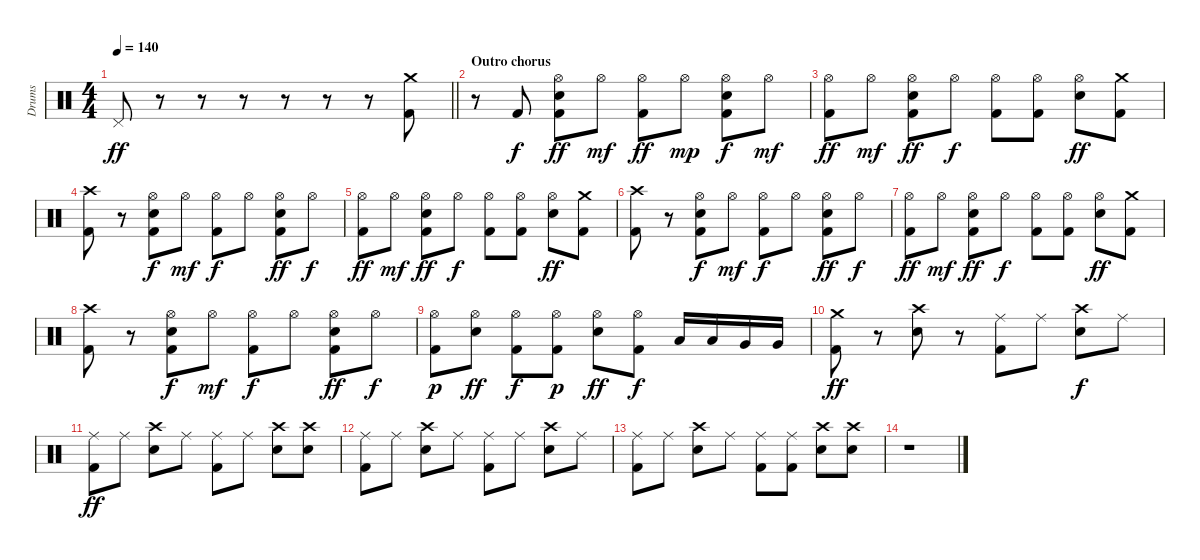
\track ("Drums" "Drums") {instrument percussion}
\staff {score}
\articulation defaults
\ts (4 4)
\tempo 140
\clef neutral
\barLineRight lightlight
\ks c "Pedal Hi-Hat (hit)".8{dy ff}
r.8 r.8 r.8 r.8 r.8 r.8 ("Crash medium (hit)" "Kick (hit) 2").8 |
\section ("" "Outro chorus")
r.8 "Kick (hit) 2".8{dy f} ("Hi-Hat (open)" "Electric Snare (hit)" "Kick (hit) 2").8{dy ff} "Hi-Hat (open)".8{dy mf} ("Hi-Hat (open)" "Kick (hit) 2").8{dy ff} "Hi-Hat (open)".8{dy mp} ("Hi-Hat (open)" "Electric Snare (hit)" "Kick (hit) 2").8{dy f} "Hi-Hat (open)".8{dy mf} |
("Hi-Hat (open)" "Kick (hit) 2").8{dy ff} "Hi-Hat (open)".8{dy mf} ("Hi-Hat (open)" "Electric Snare (hit)" "Kick (hit) 2").8{dy ff} "Hi-Hat (open)".8{dy f} ("Hi-Hat (open)" "Kick (hit) 2").8 ("Hi-Hat (open)" "Kick (hit) 2").8 ("Hi-Hat (open)" "Electric Snare (hit)").8{dy ff} ("Crash medium (hit)" "Kick (hit) 2").8 |
("Crash high (hit)" "Kick (hit) 2").8 r.8 ("Hi-Hat (open)" "Electric Snare (hit)" "Kick (hit) 2").8{dy f} "Hi-Hat (open)".8{dy mf} ("Hi-Hat (open)" "Kick (hit) 2").8{dy f} "Hi-Hat (open)".8 ("Hi-Hat (open)" "Electric Snare (hit)" "Kick (hit) 2").8{dy ff} "Hi-Hat (open)".8{dy f} |
("Hi-Hat (open)" "Kick (hit) 2").8{dy ff} "Hi-Hat (open)".8{dy mf} ("Hi-Hat (open)" "Electric Snare (hit)" "Kick (hit) 2").8{dy ff} "Hi-Hat (open)".8{dy f} ("Hi-Hat (open)" "Kick (hit) 2").8 ("Hi-Hat (open)" "Kick (hit) 2").8 ("Hi-Hat (open)" "Electric Snare (hit)").8{dy ff} ("Crash medium (hit)" "Kick (hit) 2").8 |
("Crash high (hit)" "Kick (hit) 2").8 r.8 ("Hi-Hat (open)" "Electric Snare (hit)" "Kick (hit) 2").8{dy f} "Hi-Hat (open)".8{dy mf} ("Hi-Hat (open)" "Kick (hit) 2").8{dy f} "Hi-Hat (open)".8 ("Hi-Hat (open)" "Electric Snare (hit)" "Kick (hit) 2").8{dy ff} "Hi-Hat (open)".8{dy f} |
("Hi-Hat (open)" "Kick (hit) 2").8{dy ff} "Hi-Hat (open)".8{dy mf} ("Hi-Hat (open)" "Electric Snare (hit)" "Kick (hit) 2").8{dy ff} "Hi-Hat (open)".8{dy f} ("Hi-Hat (open)" "Kick (hit) 2").8 ("Hi-Hat (open)" "Kick (hit) 2").8 ("Hi-Hat (open)" "Electric Snare (hit)").8{dy ff} ("Crash medium (hit)" "Kick (hit) 2").8 |
("Crash high (hit)" "Kick (hit) 2").8 r.8 ("Hi-Hat (open)" "Electric Snare (hit)" "Kick (hit) 2").8{dy f} "Hi-Hat (open)".8{dy mf} ("Hi-Hat (open)" "Kick (hit) 2").8{dy f} "Hi-Hat (open)".8 ("Hi-Hat (open)" "Electric Snare (hit)" "Kick (hit) 2").8{dy ff} "Hi-Hat (open)".8{dy f} |
("Hi-Hat (open)" "Kick (hit) 2").8{dy p} ("Hi-Hat (open)" "Electric Snare (hit)").8{dy ff} ("Hi-Hat (open)" "Kick (hit) 2").8{dy f} ("Hi-Hat (open)" "Kick (hit) 2").8{dy p} ("Hi-Hat (open)" "Electric Snare (hit)").8{dy ff} ("Hi-Hat (open)" "Kick (hit) 2").8{dy f} "Low Tom (hit)".16 "Low Tom (hit)".16 "Very Low Tom (hit)".16 "Very Low Tom (hit)".16 |
("Crash medium (hit)" "Kick (hit) 2").8{dy ff} r.8 ("Crash high (hit)" "Electric Snare (hit)").8 r.8 ("Ride (middle)" "Kick (hit) 2").8 "Ride (middle)".8 ("Crash high (hit)" "Electric Snare (hit)").8{dy f} "Ride (middle)".8 |
("Ride (middle)" "Kick (hit) 2").8{dy ff} "Ride (middle)".8 ("Crash high (hit)" "Electric Snare (hit)").8 "Ride (middle)".8 ("Ride (middle)" "Kick (hit) 2").8 "Ride (middle)".8 ("Crash high (hit)" "Electric Snare (hit)").8 ("Crash high (hit)" "Electric Snare (hit)").8 |
("Ride (middle)" "Kick (hit) 2").8 "Ride (middle)".8 ("Crash high (hit)" "Electric Snare (hit)").8 "Ride (middle)".8 ("Ride (middle)" "Kick (hit) 2").8 "Ride (middle)".8 ("Crash high (hit)" "Electric Snare (hit)").8 "Ride (middle)".8 |
("Ride (middle)" "Kick (hit) 2").8 "Ride (middle)".8 ("Crash high (hit)" "Electric Snare (hit)").8 "Ride (middle)".8 ("Ride (middle)" "Kick (hit) 2").8 ("Ride (middle)" "Kick (hit) 2").8 ("Crash high (hit)" "Electric Snare (hit)").8 ("Crash high (hit)" "Electric Snare (hit)").8 |
r.1
